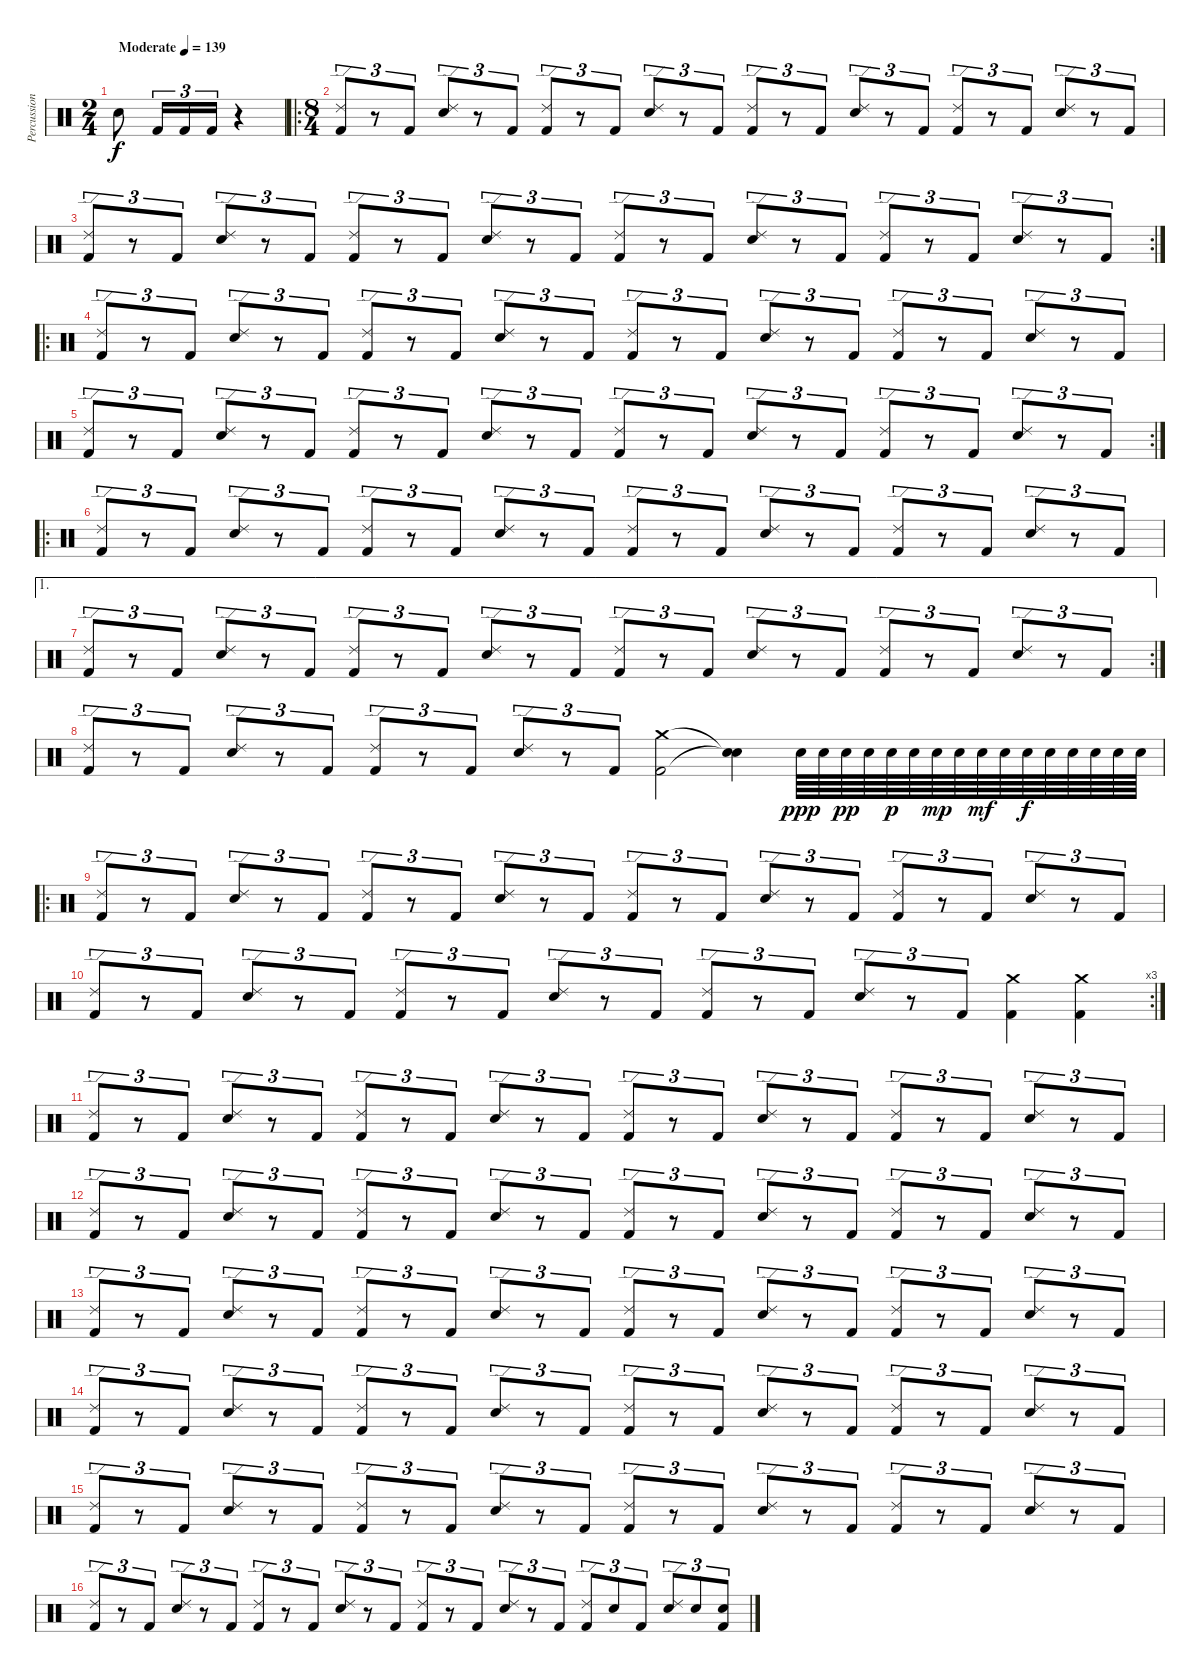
\track ("Percussion" "Percussion") {instrument percussion}
\staff {score}
\articulation defaults
\ts (2 4)
\tempo (139 "Moderate")
\clef neutral
\ks c "Snare (hit) 2".8{dy f} "Kick (hit) 2".16{tu (3 2)} "Kick (hit) 2".16{tu (3 2)} "Kick (hit) 2".16{tu (3 2)}
r.4 |
\ro
\ts (8 4)
("Kick (hit) 2" "Ride (edge) 2").8{tu (3 2)} r.8{tu (3 2)} "Kick (hit) 2".8{tu (3 2)} ("Snare (hit) 2" "Ride (edge) 2").8{tu (3 2)} r.8{tu (3 2)} "Kick (hit) 2".8{tu (3 2)} ("Kick (hit) 2" "Ride (edge) 2").8{tu (3 2)} r.8{tu (3 2)} "Kick (hit) 2".8{tu (3 2)} ("Snare (hit) 2" "Ride (edge) 2").8{tu (3 2)} r.8{tu (3 2)} "Kick (hit) 2".8{tu (3 2)} ("Kick (hit) 2" "Ride (edge) 2").8{tu (3 2)} r.8{tu (3 2)} "Kick (hit) 2".8{tu (3 2)} ("Snare (hit) 2" "Ride (edge) 2").8{tu (3 2)} r.8{tu (3 2)} "Kick (hit) 2".8{tu (3 2)} ("Kick (hit) 2" "Ride (edge) 2").8{tu (3 2)} r.8{tu (3 2)} "Kick (hit) 2".8{tu (3 2)} ("Snare (hit) 2" "Ride (edge) 2").8{tu (3 2)} r.8{tu (3 2)} "Kick (hit) 2".8{tu (3 2)} |
\rc 2
("Kick (hit) 2" "Ride (edge) 2").8{tu (3 2)} r.8{tu (3 2)} "Kick (hit) 2".8{tu (3 2)} ("Snare (hit) 2" "Ride (edge) 2").8{tu (3 2)} r.8{tu (3 2)} "Kick (hit) 2".8{tu (3 2)} ("Kick (hit) 2" "Ride (edge) 2").8{tu (3 2)} r.8{tu (3 2)} "Kick (hit) 2".8{tu (3 2)} ("Snare (hit) 2" "Ride (edge) 2").8{tu (3 2)} r.8{tu (3 2)} "Kick (hit) 2".8{tu (3 2)} ("Kick (hit) 2" "Ride (edge) 2").8{tu (3 2)} r.8{tu (3 2)} "Kick (hit) 2".8{tu (3 2)} ("Snare (hit) 2" "Ride (edge) 2").8{tu (3 2)} r.8{tu (3 2)} "Kick (hit) 2".8{tu (3 2)} ("Kick (hit) 2" "Ride (edge) 2").8{tu (3 2)} r.8{tu (3 2)} "Kick (hit) 2".8{tu (3 2)} ("Snare (hit) 2" "Ride (edge) 2").8{tu (3 2)} r.8{tu (3 2)} "Kick (hit) 2".8{tu (3 2)} |
\ro
("Kick (hit) 2" "Ride (edge) 2").8{tu (3 2)} r.8{tu (3 2)} "Kick (hit) 2".8{tu (3 2)} ("Snare (hit) 2" "Ride (edge) 2").8{tu (3 2)} r.8{tu (3 2)} "Kick (hit) 2".8{tu (3 2)} ("Kick (hit) 2" "Ride (edge) 2").8{tu (3 2)} r.8{tu (3 2)} "Kick (hit) 2".8{tu (3 2)} ("Snare (hit) 2" "Ride (edge) 2").8{tu (3 2)} r.8{tu (3 2)} "Kick (hit) 2".8{tu (3 2)} ("Kick (hit) 2" "Ride (edge) 2").8{tu (3 2)} r.8{tu (3 2)} "Kick (hit) 2".8{tu (3 2)} ("Snare (hit) 2" "Ride (edge) 2").8{tu (3 2)} r.8{tu (3 2)} "Kick (hit) 2".8{tu (3 2)} ("Kick (hit) 2" "Ride (edge) 2").8{tu (3 2)} r.8{tu (3 2)} "Kick (hit) 2".8{tu (3 2)} ("Snare (hit) 2" "Ride (edge) 2").8{tu (3 2)} r.8{tu (3 2)} "Kick (hit) 2".8{tu (3 2)} |
\rc 2
("Kick (hit) 2" "Ride (edge) 2").8{tu (3 2)} r.8{tu (3 2)} "Kick (hit) 2".8{tu (3 2)} ("Snare (hit) 2" "Ride (edge) 2").8{tu (3 2)} r.8{tu (3 2)} "Kick (hit) 2".8{tu (3 2)} ("Kick (hit) 2" "Ride (edge) 2").8{tu (3 2)} r.8{tu (3 2)} "Kick (hit) 2".8{tu (3 2)} ("Snare (hit) 2" "Ride (edge) 2").8{tu (3 2)} r.8{tu (3 2)} "Kick (hit) 2".8{tu (3 2)} ("Kick (hit) 2" "Ride (edge) 2").8{tu (3 2)} r.8{tu (3 2)} "Kick (hit) 2".8{tu (3 2)} ("Snare (hit) 2" "Ride (edge) 2").8{tu (3 2)} r.8{tu (3 2)} "Kick (hit) 2".8{tu (3 2)} ("Kick (hit) 2" "Ride (edge) 2").8{tu (3 2)} r.8{tu (3 2)} "Kick (hit) 2".8{tu (3 2)} ("Snare (hit) 2" "Ride (edge) 2").8{tu (3 2)} r.8{tu (3 2)} "Kick (hit) 2".8{tu (3 2)} |
\ro
("Kick (hit) 2" "Ride (edge) 2").8{tu (3 2)} r.8{tu (3 2)} "Kick (hit) 2".8{tu (3 2)} ("Snare (hit) 2" "Ride (edge) 2").8{tu (3 2)} r.8{tu (3 2)} "Kick (hit) 2".8{tu (3 2)} ("Kick (hit) 2" "Ride (edge) 2").8{tu (3 2)} r.8{tu (3 2)} "Kick (hit) 2".8{tu (3 2)} ("Snare (hit) 2" "Ride (edge) 2").8{tu (3 2)} r.8{tu (3 2)} "Kick (hit) 2".8{tu (3 2)} ("Kick (hit) 2" "Ride (edge) 2").8{tu (3 2)} r.8{tu (3 2)} "Kick (hit) 2".8{tu (3 2)} ("Snare (hit) 2" "Ride (edge) 2").8{tu (3 2)} r.8{tu (3 2)} "Kick (hit) 2".8{tu (3 2)} ("Kick (hit) 2" "Ride (edge) 2").8{tu (3 2)} r.8{tu (3 2)} "Kick (hit) 2".8{tu (3 2)} ("Snare (hit) 2" "Ride (edge) 2").8{tu (3 2)} r.8{tu (3 2)} "Kick (hit) 2".8{tu (3 2)} |
\ae 1
\rc 2
("Kick (hit) 2" "Ride (edge) 2").8{tu (3 2)} r.8{tu (3 2)} "Kick (hit) 2".8{tu (3 2)} ("Snare (hit) 2" "Ride (edge) 2").8{tu (3 2)} r.8{tu (3 2)} "Kick (hit) 2".8{tu (3 2)} ("Kick (hit) 2" "Ride (edge) 2").8{tu (3 2)} r.8{tu (3 2)} "Kick (hit) 2".8{tu (3 2)} ("Snare (hit) 2" "Ride (edge) 2").8{tu (3 2)} r.8{tu (3 2)} "Kick (hit) 2".8{tu (3 2)} ("Kick (hit) 2" "Ride (edge) 2").8{tu (3 2)} r.8{tu (3 2)} "Kick (hit) 2".8{tu (3 2)} ("Snare (hit) 2" "Ride (edge) 2").8{tu (3 2)} r.8{tu (3 2)} "Kick (hit) 2".8{tu (3 2)} ("Kick (hit) 2" "Ride (edge) 2").8{tu (3 2)} r.8{tu (3 2)} "Kick (hit) 2".8{tu (3 2)} ("Snare (hit) 2" "Ride (edge) 2").8{tu (3 2)} r.8{tu (3 2)} "Kick (hit) 2".8{tu (3 2)} |
("Kick (hit) 2" "Ride (edge) 2").8{tu (3 2)} r.8{tu (3 2)} "Kick (hit) 2".8{tu (3 2)} ("Snare (hit) 2" "Ride (edge) 2").8{tu (3 2)} r.8{tu (3 2)} "Kick (hit) 2".8{tu (3 2)} ("Kick (hit) 2" "Ride (edge) 2").8{tu (3 2)} r.8{tu (3 2)} "Kick (hit) 2".8{tu (3 2)} ("Snare (hit) 2" "Ride (edge) 2").8{tu (3 2)} r.8{tu (3 2)} "Kick (hit) 2".8{tu (3 2)} ("Kick (hit) 2" "Crash medium (hit)").2 ("Snare (hit)"{t} "Snare (hit)"{t}).4 "Snare (hit) 2".64{dy ppp} "Snare (hit) 2".64 "Snare (hit) 2".64{dy pp} "Snare (hit) 2".64 "Snare (hit) 2".64{dy p} "Snare (hit) 2".64 "Snare (hit) 2".64{dy mp} "Snare (hit) 2".64 "Snare (hit) 2".64{dy mf} "Snare (hit) 2".64 "Snare (hit) 2".64{dy f} "Snare (hit) 2".64 "Snare (hit) 2".64 "Snare (hit) 2".64 "Snare (hit) 2".64 "Snare (hit) 2".64 |
\ro
("Kick (hit) 2" "Ride (edge) 2").8{tu (3 2)} r.8{tu (3 2)} "Kick (hit) 2".8{tu (3 2)} ("Snare (hit) 2" "Ride (edge) 2").8{tu (3 2)} r.8{tu (3 2)} "Kick (hit) 2".8{tu (3 2)} ("Kick (hit) 2" "Ride (edge) 2").8{tu (3 2)} r.8{tu (3 2)} "Kick (hit) 2".8{tu (3 2)} ("Snare (hit) 2" "Ride (edge) 2").8{tu (3 2)} r.8{tu (3 2)} "Kick (hit) 2".8{tu (3 2)} ("Kick (hit) 2" "Ride (edge) 2").8{tu (3 2)} r.8{tu (3 2)} "Kick (hit) 2".8{tu (3 2)} ("Snare (hit) 2" "Ride (edge) 2").8{tu (3 2)} r.8{tu (3 2)} "Kick (hit) 2".8{tu (3 2)} ("Kick (hit) 2" "Ride (edge) 2").8{tu (3 2)} r.8{tu (3 2)} "Kick (hit) 2".8{tu (3 2)} ("Snare (hit) 2" "Ride (edge) 2").8{tu (3 2)} r.8{tu (3 2)} "Kick (hit) 2".8{tu (3 2)} |
\rc 3
("Kick (hit) 2" "Ride (edge) 2").8{tu (3 2)} r.8{tu (3 2)} "Kick (hit) 2".8{tu (3 2)} ("Snare (hit) 2" "Ride (edge) 2").8{tu (3 2)} r.8{tu (3 2)} "Kick (hit) 2".8{tu (3 2)} ("Kick (hit) 2" "Ride (edge) 2").8{tu (3 2)} r.8{tu (3 2)} "Kick (hit) 2".8{tu (3 2)} ("Snare (hit) 2" "Ride (edge) 2").8{tu (3 2)} r.8{tu (3 2)} "Kick (hit) 2".8{tu (3 2)} ("Kick (hit) 2" "Ride (edge) 2").8{tu (3 2)} r.8{tu (3 2)} "Kick (hit) 2".8{tu (3 2)} ("Snare (hit) 2" "Ride (edge) 2").8{tu (3 2)} r.8{tu (3 2)} "Kick (hit) 2".8{tu (3 2)} ("Kick (hit) 2" "Crash medium (hit)").4 ("Kick (hit) 2" "Crash medium (hit)").4 |
("Kick (hit) 2" "Ride (edge) 2").8{tu (3 2)} r.8{tu (3 2)} "Kick (hit) 2".8{tu (3 2)} ("Snare (hit) 2" "Ride (edge) 2").8{tu (3 2)} r.8{tu (3 2)} "Kick (hit) 2".8{tu (3 2)} ("Kick (hit) 2" "Ride (edge) 2").8{tu (3 2)} r.8{tu (3 2)} "Kick (hit) 2".8{tu (3 2)} ("Snare (hit) 2" "Ride (edge) 2").8{tu (3 2)} r.8{tu (3 2)} "Kick (hit) 2".8{tu (3 2)} ("Kick (hit) 2" "Ride (edge) 2").8{tu (3 2)} r.8{tu (3 2)} "Kick (hit) 2".8{tu (3 2)} ("Snare (hit) 2" "Ride (edge) 2").8{tu (3 2)} r.8{tu (3 2)} "Kick (hit) 2".8{tu (3 2)} ("Kick (hit) 2" "Ride (edge) 2").8{tu (3 2)} r.8{tu (3 2)} "Kick (hit) 2".8{tu (3 2)} ("Snare (hit) 2" "Ride (edge) 2").8{tu (3 2)} r.8{tu (3 2)} "Kick (hit) 2".8{tu (3 2)} |
("Kick (hit) 2" "Ride (edge) 2").8{tu (3 2)} r.8{tu (3 2)} "Kick (hit) 2".8{tu (3 2)} ("Snare (hit) 2" "Ride (edge) 2").8{tu (3 2)} r.8{tu (3 2)} "Kick (hit) 2".8{tu (3 2)} ("Kick (hit) 2" "Ride (edge) 2").8{tu (3 2)} r.8{tu (3 2)} "Kick (hit) 2".8{tu (3 2)} ("Snare (hit) 2" "Ride (edge) 2").8{tu (3 2)} r.8{tu (3 2)} "Kick (hit) 2".8{tu (3 2)} ("Kick (hit) 2" "Ride (edge) 2").8{tu (3 2)} r.8{tu (3 2)} "Kick (hit) 2".8{tu (3 2)} ("Snare (hit) 2" "Ride (edge) 2").8{tu (3 2)} r.8{tu (3 2)} "Kick (hit) 2".8{tu (3 2)} ("Kick (hit) 2" "Ride (edge) 2").8{tu (3 2)} r.8{tu (3 2)} "Kick (hit) 2".8{tu (3 2)} ("Snare (hit) 2" "Ride (edge) 2").8{tu (3 2)} r.8{tu (3 2)} "Kick (hit) 2".8{tu (3 2)} |
("Kick (hit) 2" "Ride (edge) 2").8{tu (3 2)} r.8{tu (3 2)} "Kick (hit) 2".8{tu (3 2)} ("Snare (hit) 2" "Ride (edge) 2").8{tu (3 2)} r.8{tu (3 2)} "Kick (hit) 2".8{tu (3 2)} ("Kick (hit) 2" "Ride (edge) 2").8{tu (3 2)} r.8{tu (3 2)} "Kick (hit) 2".8{tu (3 2)} ("Snare (hit) 2" "Ride (edge) 2").8{tu (3 2)} r.8{tu (3 2)} "Kick (hit) 2".8{tu (3 2)} ("Kick (hit) 2" "Ride (edge) 2").8{tu (3 2)} r.8{tu (3 2)} "Kick (hit) 2".8{tu (3 2)} ("Snare (hit) 2" "Ride (edge) 2").8{tu (3 2)} r.8{tu (3 2)} "Kick (hit) 2".8{tu (3 2)} ("Kick (hit) 2" "Ride (edge) 2").8{tu (3 2)} r.8{tu (3 2)} "Kick (hit) 2".8{tu (3 2)} ("Snare (hit) 2" "Ride (edge) 2").8{tu (3 2)} r.8{tu (3 2)} "Kick (hit) 2".8{tu (3 2)} |
("Kick (hit) 2" "Ride (edge) 2").8{tu (3 2)} r.8{tu (3 2)} "Kick (hit) 2".8{tu (3 2)} ("Snare (hit) 2" "Ride (edge) 2").8{tu (3 2)} r.8{tu (3 2)} "Kick (hit) 2".8{tu (3 2)} ("Kick (hit) 2" "Ride (edge) 2").8{tu (3 2)} r.8{tu (3 2)} "Kick (hit) 2".8{tu (3 2)} ("Snare (hit) 2" "Ride (edge) 2").8{tu (3 2)} r.8{tu (3 2)} "Kick (hit) 2".8{tu (3 2)} ("Kick (hit) 2" "Ride (edge) 2").8{tu (3 2)} r.8{tu (3 2)} "Kick (hit) 2".8{tu (3 2)} ("Snare (hit) 2" "Ride (edge) 2").8{tu (3 2)} r.8{tu (3 2)} "Kick (hit) 2".8{tu (3 2)} ("Kick (hit) 2" "Ride (edge) 2").8{tu (3 2)} r.8{tu (3 2)} "Kick (hit) 2".8{tu (3 2)} ("Snare (hit) 2" "Ride (edge) 2").8{tu (3 2)} r.8{tu (3 2)} "Kick (hit) 2".8{tu (3 2)} |
("Kick (hit) 2" "Ride (edge) 2").8{tu (3 2)} r.8{tu (3 2)} "Kick (hit) 2".8{tu (3 2)} ("Snare (hit) 2" "Ride (edge) 2").8{tu (3 2)} r.8{tu (3 2)} "Kick (hit) 2".8{tu (3 2)} ("Kick (hit) 2" "Ride (edge) 2").8{tu (3 2)} r.8{tu (3 2)} "Kick (hit) 2".8{tu (3 2)} ("Snare (hit) 2" "Ride (edge) 2").8{tu (3 2)} r.8{tu (3 2)} "Kick (hit) 2".8{tu (3 2)} ("Kick (hit) 2" "Ride (edge) 2").8{tu (3 2)} r.8{tu (3 2)} "Kick (hit) 2".8{tu (3 2)} ("Snare (hit) 2" "Ride (edge) 2").8{tu (3 2)} r.8{tu (3 2)} "Kick (hit) 2".8{tu (3 2)} ("Kick (hit) 2" "Ride (edge) 2").8{tu (3 2)} r.8{tu (3 2)} "Kick (hit) 2".8{tu (3 2)} ("Snare (hit) 2" "Ride (edge) 2").8{tu (3 2)} r.8{tu (3 2)} "Kick (hit) 2".8{tu (3 2)} |
("Kick (hit) 2" "Ride (edge) 2").8{tu (3 2)} r.8{tu (3 2)} "Kick (hit) 2".8{tu (3 2)} ("Snare (hit) 2" "Ride (edge) 2").8{tu (3 2)} r.8{tu (3 2)} "Kick (hit) 2".8{tu (3 2)} ("Kick (hit) 2" "Ride (edge) 2").8{tu (3 2)} r.8{tu (3 2)} "Kick (hit) 2".8{tu (3 2)} ("Snare (hit) 2" "Ride (edge) 2").8{tu (3 2)} r.8{tu (3 2)} "Kick (hit) 2".8{tu (3 2)} ("Kick (hit) 2" "Ride (edge) 2").8{tu (3 2)} r.8{tu (3 2)} "Kick (hit) 2".8{tu (3 2)} ("Snare (hit) 2" "Ride (edge) 2").8{tu (3 2)} r.8{tu (3 2)} "Kick (hit) 2".8{tu (3 2)} ("Kick (hit) 2" "Ride (edge) 2").8{tu (3 2)} "Snare (hit) 2".8{tu (3 2)} "Kick (hit) 2".8{tu (3 2)} ("Snare (hit) 2" "Ride (edge) 2").8{tu (3 2)} "Snare (hit) 2".8{tu (3 2)} ("Kick (hit) 2" "Snare (hit) 2").8{tu (3 2)}
